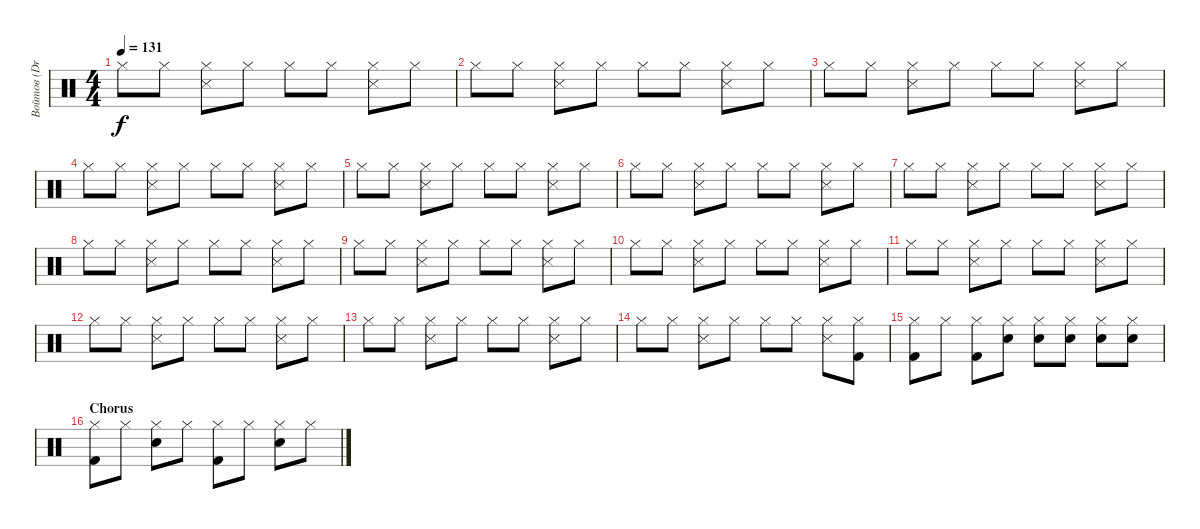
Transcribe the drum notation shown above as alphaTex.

\track ("Войтов (Drums)" "Войтов (Dr") {instrument percussion}
\staff {score}
\articulation defaults
\ts (4 4)
\tempo 131
\clef neutral
\ks c "Hi-Hat (closed)".8{dy f} "Hi-Hat (closed)".8
("Hi-Hat (closed)" "Snare (side stick) 3").8 "Hi-Hat (closed)".8 "Hi-Hat (closed)".8 "Hi-Hat (closed)".8 ("Hi-Hat (closed)" "Snare (side stick) 3").8 "Hi-Hat (closed)".8 |
"Hi-Hat (closed)".8 "Hi-Hat (closed)".8 ("Hi-Hat (closed)" "Snare (side stick) 3").8 "Hi-Hat (closed)".8 "Hi-Hat (closed)".8 "Hi-Hat (closed)".8 ("Hi-Hat (closed)" "Snare (side stick) 3").8 "Hi-Hat (closed)".8 |
"Hi-Hat (closed)".8 "Hi-Hat (closed)".8 ("Hi-Hat (closed)" "Snare (side stick) 3").8 "Hi-Hat (closed)".8 "Hi-Hat (closed)".8 "Hi-Hat (closed)".8 ("Hi-Hat (closed)" "Snare (side stick) 3").8 "Hi-Hat (closed)".8 |
"Hi-Hat (closed)".8 "Hi-Hat (closed)".8 ("Hi-Hat (closed)" "Snare (side stick) 3").8 "Hi-Hat (closed)".8 "Hi-Hat (closed)".8 "Hi-Hat (closed)".8 ("Hi-Hat (closed)" "Snare (side stick) 3").8 "Hi-Hat (closed)".8 |
"Hi-Hat (closed)".8 "Hi-Hat (closed)".8 ("Hi-Hat (closed)" "Snare (side stick) 3").8 "Hi-Hat (closed)".8 "Hi-Hat (closed)".8 "Hi-Hat (closed)".8 ("Hi-Hat (closed)" "Snare (side stick) 3").8 "Hi-Hat (closed)".8 |
"Hi-Hat (closed)".8 "Hi-Hat (closed)".8 ("Hi-Hat (closed)" "Snare (side stick) 3").8 "Hi-Hat (closed)".8 "Hi-Hat (closed)".8 "Hi-Hat (closed)".8 ("Hi-Hat (closed)" "Snare (side stick) 3").8 "Hi-Hat (closed)".8 |
"Hi-Hat (closed)".8 "Hi-Hat (closed)".8 ("Hi-Hat (closed)" "Snare (side stick) 3").8 "Hi-Hat (closed)".8 "Hi-Hat (closed)".8 "Hi-Hat (closed)".8 ("Hi-Hat (closed)" "Snare (side stick) 3").8 "Hi-Hat (closed)".8 |
"Hi-Hat (closed)".8 "Hi-Hat (closed)".8 ("Hi-Hat (closed)" "Snare (side stick) 3").8 "Hi-Hat (closed)".8 "Hi-Hat (closed)".8 "Hi-Hat (closed)".8 ("Hi-Hat (closed)" "Snare (side stick) 3").8 "Hi-Hat (closed)".8 |
"Hi-Hat (closed)".8 "Hi-Hat (closed)".8 ("Hi-Hat (closed)" "Snare (side stick) 3").8 "Hi-Hat (closed)".8 "Hi-Hat (closed)".8 "Hi-Hat (closed)".8 ("Hi-Hat (closed)" "Snare (side stick) 3").8 "Hi-Hat (closed)".8 |
"Hi-Hat (closed)".8 "Hi-Hat (closed)".8 ("Hi-Hat (closed)" "Snare (side stick) 3").8 "Hi-Hat (closed)".8 "Hi-Hat (closed)".8 "Hi-Hat (closed)".8 ("Hi-Hat (closed)" "Snare (side stick) 3").8 "Hi-Hat (closed)".8 |
"Hi-Hat (closed)".8 "Hi-Hat (closed)".8 ("Hi-Hat (closed)" "Snare (side stick) 3").8 "Hi-Hat (closed)".8 "Hi-Hat (closed)".8 "Hi-Hat (closed)".8 ("Hi-Hat (closed)" "Snare (side stick) 3").8 "Hi-Hat (closed)".8 |
"Hi-Hat (closed)".8 "Hi-Hat (closed)".8 ("Hi-Hat (closed)" "Snare (side stick) 3").8 "Hi-Hat (closed)".8 "Hi-Hat (closed)".8 "Hi-Hat (closed)".8 ("Hi-Hat (closed)" "Snare (side stick) 3").8 "Hi-Hat (closed)".8 |
"Hi-Hat (closed)".8 "Hi-Hat (closed)".8 ("Hi-Hat (closed)" "Snare (side stick) 3").8 "Hi-Hat (closed)".8 "Hi-Hat (closed)".8 "Hi-Hat (closed)".8 ("Hi-Hat (closed)" "Snare (side stick) 3").8 "Hi-Hat (closed)".8 |
"Hi-Hat (closed)".8 "Hi-Hat (closed)".8 ("Hi-Hat (closed)" "Snare (side stick) 3").8 "Hi-Hat (closed)".8 "Hi-Hat (closed)".8 "Hi-Hat (closed)".8 ("Hi-Hat (closed)" "Snare (side stick) 3").8 ("Hi-Hat (closed)" "Kick (hit) 2").8 |
("Hi-Hat (closed)" "Kick (hit) 2").8 "Hi-Hat (closed)".8 ("Hi-Hat (closed)" "Kick (hit) 2").8 ("Hi-Hat (closed)" "Electric Snare (hit)").8 ("Hi-Hat (closed)" "Electric Snare (hit)").8 ("Hi-Hat (closed)" "Electric Snare (hit)").8 ("Hi-Hat (closed)" "Electric Snare (hit)").8 ("Hi-Hat (closed)" "Electric Snare (hit)").8 |
\section ("" "Chorus")
("Kick (hit) 2" "Hi-Hat (closed)").8 "Hi-Hat (closed)".8 ("Electric Snare (hit)" "Hi-Hat (closed)").8 "Hi-Hat (closed)".8 ("Kick (hit) 2" "Hi-Hat (closed)").8 "Hi-Hat (closed)".8 ("Electric Snare (hit)" "Hi-Hat (closed)").8 "Hi-Hat (closed)".8
